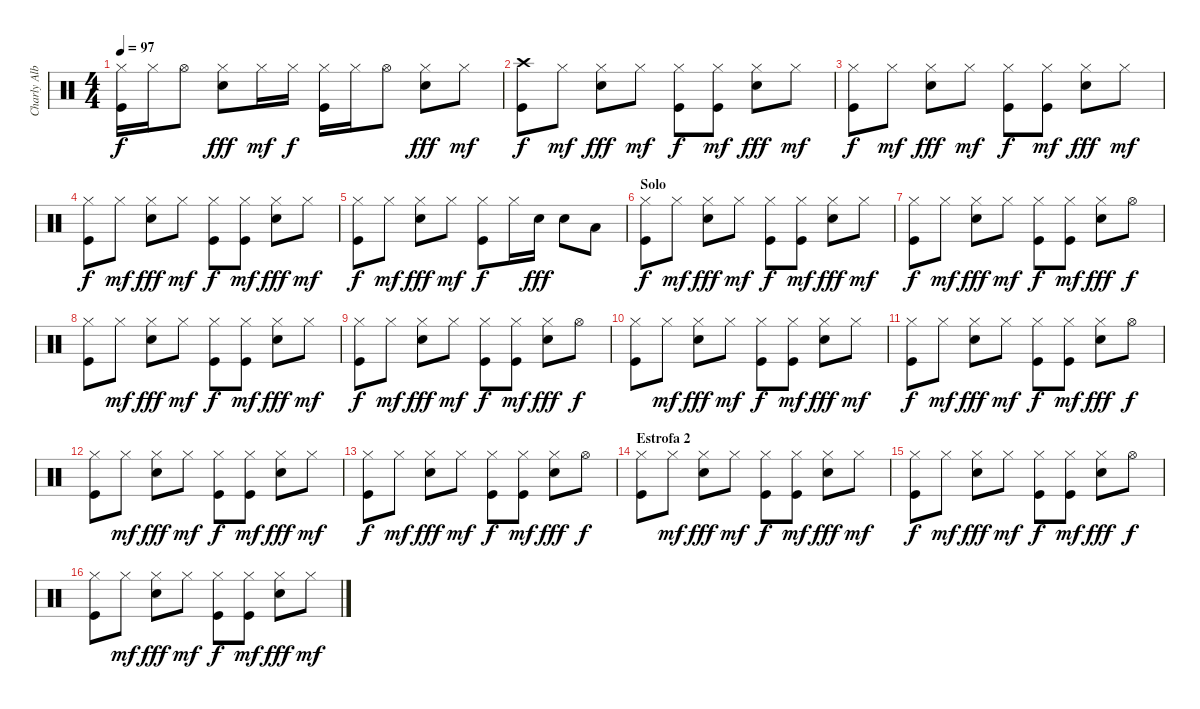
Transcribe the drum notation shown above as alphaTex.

\track ("Charly Alberti" "Charly Alb") {instrument percussion}
\staff {score}
\articulation defaults
\ts (4 4)
\tempo 97
\clef neutral
\ks c
("Kick (hit)" "Hi-Hat (closed)").16{dy f} "Hi-Hat (closed)".16 "Hi-Hat (open)".8 ("Snare (hit) 2" "Hi-Hat (closed)").8{dy fff} "Hi-Hat (closed)".16{dy mf} "Hi-Hat (closed)".16{dy f} ("Kick (hit)" "Hi-Hat (closed)").16 "Hi-Hat (closed)".16 "Hi-Hat (open)".8 ("Snare (hit) 2" "Hi-Hat (closed)").8{dy fff} "Hi-Hat (closed)".8{dy mf} |
("Kick (hit)" "Crash high (hit)").8{dy f} "Hi-Hat (closed)".8{dy mf} ("Snare (hit) 2" "Hi-Hat (closed)").8{dy fff} "Hi-Hat (closed)".8{dy mf} ("Kick (hit)" "Hi-Hat (closed)").8{dy f} ("Kick (hit)" "Hi-Hat (closed)").8{dy mf} ("Snare (hit) 2" "Hi-Hat (closed)").8{dy fff} "Hi-Hat (closed)".8{dy mf} |
("Kick (hit)" "Hi-Hat (closed)").8{dy f} "Hi-Hat (closed)".8{dy mf} ("Snare (hit) 2" "Hi-Hat (closed)").8{dy fff} "Hi-Hat (closed)".8{dy mf} ("Kick (hit)" "Hi-Hat (closed)").8{dy f} ("Kick (hit)" "Hi-Hat (closed)").8{dy mf} ("Snare (hit) 2" "Hi-Hat (closed)").8{dy fff} "Hi-Hat (closed)".8{dy mf} |
("Kick (hit)" "Hi-Hat (closed)").8{dy f} "Hi-Hat (closed)".8{dy mf} ("Snare (hit) 2" "Hi-Hat (closed)").8{dy fff} "Hi-Hat (closed)".8{dy mf} ("Kick (hit)" "Hi-Hat (closed)").8{dy f} ("Kick (hit)" "Hi-Hat (closed)").8{dy mf} ("Snare (hit) 2" "Hi-Hat (closed)").8{dy fff} "Hi-Hat (closed)".8{dy mf} |
("Kick (hit)" "Hi-Hat (closed)").8{dy f} "Hi-Hat (closed)".8{dy mf} ("Snare (hit) 2" "Hi-Hat (closed)").8{dy fff} "Hi-Hat (closed)".8{dy mf} ("Kick (hit)" "Hi-Hat (closed)").8{dy f} "Hi-Hat (closed)".16 "Snare (hit) 2".16{dy fff} "Snare (hit) 2".8 "Low Tom (hit)".8 |
\section ("" "Solo")
("Kick (hit)" "Hi-Hat (closed)").8{dy f} "Hi-Hat (closed)".8{dy mf} ("Snare (hit) 2" "Hi-Hat (closed)").8{dy fff} "Hi-Hat (closed)".8{dy mf} ("Kick (hit)" "Hi-Hat (closed)").8{dy f} ("Kick (hit)" "Hi-Hat (closed)").8{dy mf} ("Snare (hit) 2" "Hi-Hat (closed)").8{dy fff} "Hi-Hat (closed)".8{dy mf} |
("Kick (hit)" "Hi-Hat (closed)").8{dy f} "Hi-Hat (closed)".8{dy mf} ("Snare (hit) 2" "Hi-Hat (closed)").8{dy fff} "Hi-Hat (closed)".8{dy mf} ("Kick (hit)" "Hi-Hat (closed)").8{dy f} ("Kick (hit)" "Hi-Hat (closed)").8{dy mf} ("Snare (hit) 2" "Hi-Hat (closed)").8{dy fff} "Hi-Hat (open)".8{dy f} |
("Kick (hit)" "Hi-Hat (closed)").8 "Hi-Hat (closed)".8{dy mf} ("Snare (hit) 2" "Hi-Hat (closed)").8{dy fff} "Hi-Hat (closed)".8{dy mf} ("Kick (hit)" "Hi-Hat (closed)").8{dy f} ("Kick (hit)" "Hi-Hat (closed)").8{dy mf} ("Snare (hit) 2" "Hi-Hat (closed)").8{dy fff} "Hi-Hat (closed)".8{dy mf} |
("Kick (hit)" "Hi-Hat (closed)").8{dy f} "Hi-Hat (closed)".8{dy mf} ("Snare (hit) 2" "Hi-Hat (closed)").8{dy fff} "Hi-Hat (closed)".8{dy mf} ("Kick (hit)" "Hi-Hat (closed)").8{dy f} ("Kick (hit)" "Hi-Hat (closed)").8{dy mf} ("Snare (hit) 2" "Hi-Hat (closed)").8{dy fff} "Hi-Hat (open)".8{dy f} |
("Kick (hit)" "Hi-Hat (closed)").8 "Hi-Hat (closed)".8{dy mf} ("Snare (hit) 2" "Hi-Hat (closed)").8{dy fff} "Hi-Hat (closed)".8{dy mf} ("Kick (hit)" "Hi-Hat (closed)").8{dy f} ("Kick (hit)" "Hi-Hat (closed)").8{dy mf} ("Snare (hit) 2" "Hi-Hat (closed)").8{dy fff} "Hi-Hat (closed)".8{dy mf} |
("Kick (hit)" "Hi-Hat (closed)").8{dy f} "Hi-Hat (closed)".8{dy mf} ("Snare (hit) 2" "Hi-Hat (closed)").8{dy fff} "Hi-Hat (closed)".8{dy mf} ("Kick (hit)" "Hi-Hat (closed)").8{dy f} ("Kick (hit)" "Hi-Hat (closed)").8{dy mf} ("Snare (hit) 2" "Hi-Hat (closed)").8{dy fff} "Hi-Hat (open)".8{dy f} |
("Kick (hit)" "Hi-Hat (closed)").8 "Hi-Hat (closed)".8{dy mf} ("Snare (hit) 2" "Hi-Hat (closed)").8{dy fff} "Hi-Hat (closed)".8{dy mf} ("Kick (hit)" "Hi-Hat (closed)").8{dy f} ("Kick (hit)" "Hi-Hat (closed)").8{dy mf} ("Snare (hit) 2" "Hi-Hat (closed)").8{dy fff} "Hi-Hat (closed)".8{dy mf} |
("Kick (hit)" "Hi-Hat (closed)").8{dy f} "Hi-Hat (closed)".8{dy mf} ("Snare (hit) 2" "Hi-Hat (closed)").8{dy fff} "Hi-Hat (closed)".8{dy mf} ("Kick (hit)" "Hi-Hat (closed)").8{dy f} ("Kick (hit)" "Hi-Hat (closed)").8{dy mf} ("Snare (hit) 2" "Hi-Hat (closed)").8{dy fff} "Hi-Hat (open)".8{dy f} |
\section ("" "Estrofa 2")
("Kick (hit)" "Hi-Hat (closed)").8 "Hi-Hat (closed)".8{dy mf} ("Snare (hit) 2" "Hi-Hat (closed)").8{dy fff} "Hi-Hat (closed)".8{dy mf} ("Kick (hit)" "Hi-Hat (closed)").8{dy f} ("Kick (hit)" "Hi-Hat (closed)").8{dy mf} ("Snare (hit) 2" "Hi-Hat (closed)").8{dy fff} "Hi-Hat (closed)".8{dy mf} |
("Kick (hit)" "Hi-Hat (closed)").8{dy f} "Hi-Hat (closed)".8{dy mf} ("Snare (hit) 2" "Hi-Hat (closed)").8{dy fff} "Hi-Hat (closed)".8{dy mf} ("Kick (hit)" "Hi-Hat (closed)").8{dy f} ("Kick (hit)" "Hi-Hat (closed)").8{dy mf} ("Snare (hit) 2" "Hi-Hat (closed)").8{dy fff} "Hi-Hat (open)".8{dy f} |
("Kick (hit)" "Hi-Hat (closed)").8 "Hi-Hat (closed)".8{dy mf} ("Snare (hit) 2" "Hi-Hat (closed)").8{dy fff} "Hi-Hat (closed)".8{dy mf} ("Kick (hit)" "Hi-Hat (closed)").8{dy f} ("Kick (hit)" "Hi-Hat (closed)").8{dy mf} ("Snare (hit) 2" "Hi-Hat (closed)").8{dy fff} "Hi-Hat (closed)".8{dy mf}
